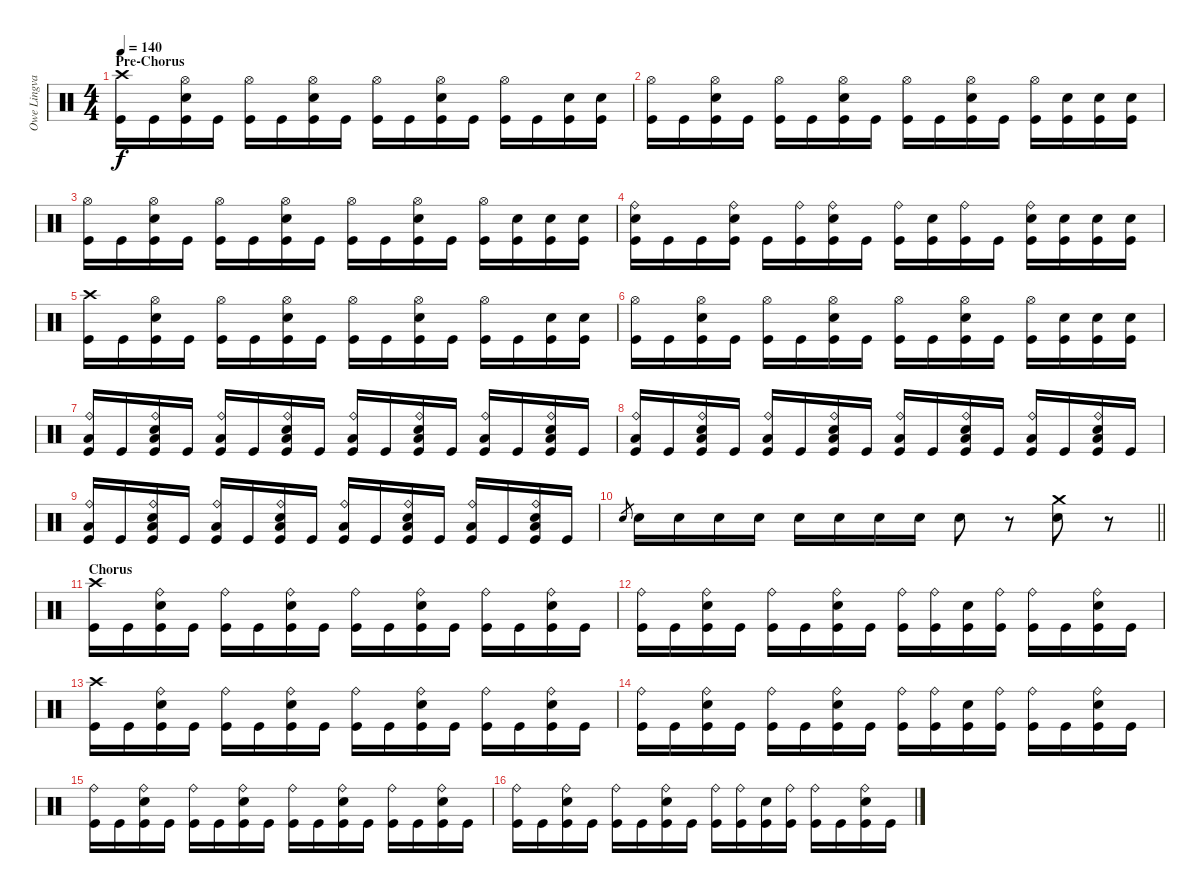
\track ("Owe Lingvall" "Owe Lingva") {instrument percussion}
\staff {score}
\articulation defaults
\ts (4 4)
\section ("" "Pre-Chorus")
\tempo 140
\clef neutral
\ks c
("Kick (hit)" "Crash high (hit)").16{dy f} "Kick (hit)".16 ("Kick (hit)" "Hi-Hat (open)" "Snare (hit) 2").16 "Kick (hit)".16 ("Kick (hit)" "Hi-Hat (open)").16 "Kick (hit)".16 ("Kick (hit)" "Hi-Hat (open)" "Snare (hit) 2").16 "Kick (hit)".16 ("Kick (hit)" "Hi-Hat (open)").16 "Kick (hit)".16 ("Kick (hit)" "Hi-Hat (open)" "Snare (hit) 2").16 "Kick (hit)".16 ("Kick (hit)" "Hi-Hat (open)").16 "Kick (hit)".16 ("Kick (hit)" "Snare (hit) 2").16 ("Kick (hit)" "Snare (hit) 2").16 |
("Kick (hit)" "Hi-Hat (open)").16 "Kick (hit)".16 ("Kick (hit)" "Hi-Hat (open)" "Snare (hit) 2").16 "Kick (hit)".16 ("Kick (hit)" "Hi-Hat (open)").16 "Kick (hit)".16 ("Kick (hit)" "Hi-Hat (open)" "Snare (hit) 2").16 "Kick (hit)".16 ("Kick (hit)" "Hi-Hat (open)").16 "Kick (hit)".16 ("Kick (hit)" "Hi-Hat (open)" "Snare (hit) 2").16 "Kick (hit)".16 ("Kick (hit)" "Hi-Hat (open)").16 ("Kick (hit)" "Snare (hit) 2").16 ("Kick (hit)" "Snare (hit) 2").16 ("Kick (hit)" "Snare (hit) 2").16 |
("Kick (hit)" "Hi-Hat (open)").16 "Kick (hit)".16 ("Kick (hit)" "Hi-Hat (open)" "Snare (hit) 2").16 "Kick (hit)".16 ("Kick (hit)" "Hi-Hat (open)").16 "Kick (hit)".16 ("Kick (hit)" "Hi-Hat (open)" "Snare (hit) 2").16 "Kick (hit)".16 ("Kick (hit)" "Hi-Hat (open)").16 "Kick (hit)".16 ("Kick (hit)" "Hi-Hat (open)" "Snare (hit) 2").16 "Kick (hit)".16 ("Kick (hit)" "Hi-Hat (open)").16 ("Kick (hit)" "Snare (hit) 2").16 ("Kick (hit)" "Snare (hit) 2").16 ("Kick (hit)" "Snare (hit) 2").16 |
("Kick (hit)" "Snare (hit) 2" "Ride (bell)").16 "Kick (hit)".16 "Kick (hit)".16 ("Kick (hit)" "Snare (hit) 2" "Ride (bell)").16 "Kick (hit)".16 ("Kick (hit)" "Ride (bell)").16 ("Kick (hit)" "Snare (hit) 2" "Ride (bell)").16 "Kick (hit)".16 ("Kick (hit)" "Ride (bell)").16 ("Kick (hit)" "Snare (hit) 2").16 ("Kick (hit)" "Ride (bell)").16 "Kick (hit)".16 ("Kick (hit)" "Snare (hit) 2" "Ride (bell)").16 ("Kick (hit)" "Snare (hit) 2").16 ("Kick (hit)" "Snare (hit) 2").16 ("Kick (hit)" "Snare (hit) 2").16 |
("Kick (hit)" "Crash high (hit)").16 "Kick (hit)".16 ("Kick (hit)" "Hi-Hat (open)" "Snare (hit) 2").16 "Kick (hit)".16 ("Kick (hit)" "Hi-Hat (open)").16 "Kick (hit)".16 ("Kick (hit)" "Hi-Hat (open)" "Snare (hit) 2").16 "Kick (hit)".16 ("Kick (hit)" "Hi-Hat (open)").16 "Kick (hit)".16 ("Kick (hit)" "Hi-Hat (open)" "Snare (hit) 2").16 "Kick (hit)".16 ("Kick (hit)" "Hi-Hat (open)").16 "Kick (hit)".16 ("Kick (hit)" "Snare (hit) 2").16 ("Kick (hit)" "Snare (hit) 2").16 |
("Kick (hit)" "Hi-Hat (open)").16 "Kick (hit)".16 ("Kick (hit)" "Hi-Hat (open)" "Snare (hit) 2").16 "Kick (hit)".16 ("Kick (hit)" "Hi-Hat (open)").16 "Kick (hit)".16 ("Kick (hit)" "Hi-Hat (open)" "Snare (hit) 2").16 "Kick (hit)".16 ("Kick (hit)" "Hi-Hat (open)").16 "Kick (hit)".16 ("Kick (hit)" "Hi-Hat (open)" "Snare (hit) 2").16 "Kick (hit)".16 ("Kick (hit)" "Hi-Hat (open)").16 ("Kick (hit)" "Snare (hit) 2").16 ("Kick (hit)" "Snare (hit) 2").16 ("Kick (hit)" "Snare (hit) 2").16 |
("Kick (hit)" "Low Tom (hit)" "Ride (bell)").16 "Kick (hit)".16 ("Kick (hit)" "Low Tom (hit)" "Snare (hit) 2" "Ride (bell)").16 "Kick (hit)".16 ("Kick (hit)" "Low Tom (hit)" "Ride (bell)").16 "Kick (hit)".16 ("Kick (hit)" "Low Tom (hit)" "Snare (hit) 2" "Ride (bell)").16 "Kick (hit)".16 ("Kick (hit)" "Low Tom (hit)" "Ride (bell)").16 "Kick (hit)".16 ("Kick (hit)" "Low Tom (hit)" "Snare (hit) 2" "Ride (bell)").16 "Kick (hit)".16 ("Kick (hit)" "Low Tom (hit)" "Ride (bell)").16 "Kick (hit)".16 ("Kick (hit)" "Low Tom (hit)" "Snare (hit) 2" "Ride (bell)").16 "Kick (hit)".16 |
("Kick (hit)" "Low Tom (hit)" "Ride (bell)").16 "Kick (hit)".16 ("Kick (hit)" "Low Tom (hit)" "Snare (hit) 2" "Ride (bell)").16 "Kick (hit)".16 ("Kick (hit)" "Low Tom (hit)" "Ride (bell)").16 "Kick (hit)".16 ("Kick (hit)" "Low Tom (hit)" "Snare (hit) 2" "Ride (bell)").16 "Kick (hit)".16 ("Kick (hit)" "Low Tom (hit)" "Ride (bell)").16 "Kick (hit)".16 ("Kick (hit)" "Low Tom (hit)" "Snare (hit) 2" "Ride (bell)").16 "Kick (hit)".16 ("Kick (hit)" "Low Tom (hit)" "Ride (bell)").16 "Kick (hit)".16 ("Kick (hit)" "Low Tom (hit)" "Snare (hit) 2" "Ride (bell)").16 "Kick (hit)".16 |
("Kick (hit)" "Low Tom (hit)" "Ride (bell)").16 "Kick (hit)".16 ("Kick (hit)" "Low Tom (hit)" "Snare (hit) 2" "Ride (bell)").16 "Kick (hit)".16 ("Kick (hit)" "Low Tom (hit)" "Ride (bell)").16 "Kick (hit)".16 ("Kick (hit)" "Low Tom (hit)" "Snare (hit) 2" "Ride (bell)").16 "Kick (hit)".16 ("Kick (hit)" "Low Tom (hit)" "Ride (bell)").16 "Kick (hit)".16 ("Kick (hit)" "Low Tom (hit)" "Snare (hit) 2" "Ride (bell)").16 "Kick (hit)".16 ("Kick (hit)" "Low Tom (hit)" "Ride (bell)").16 "Kick (hit)".16 ("Kick (hit)" "Low Tom (hit)" "Snare (hit) 2" "Ride (bell)").16 "Kick (hit)".16 |
\barLineRight lightlight "Snare (hit) 2".8{gr} "Snare (hit) 2".16 "Snare (hit) 2".16 "Snare (hit) 2".16 "Snare (hit) 2".16 "Snare (hit) 2".16 "Snare (hit) 2".16 "Snare (hit) 2".16 "Snare (hit) 2".16 "Snare (hit) 2".8
r.8 ("Snare (hit) 2" "Crash medium (hit)").8 r.8 |
\section ("" "Chorus")
("Kick (hit)" "Crash high (hit)").16 "Kick (hit)".16 ("Kick (hit)" "Ride (bell)" "Snare (hit) 2").16 "Kick (hit)".16 ("Kick (hit)" "Ride (bell)").16 "Kick (hit)".16 ("Kick (hit)" "Ride (bell)" "Snare (hit) 2").16 "Kick (hit)".16 ("Kick (hit)" "Ride (bell)").16 "Kick (hit)".16 ("Kick (hit)" "Ride (bell)" "Snare (hit) 2").16 "Kick (hit)".16 ("Kick (hit)" "Ride (bell)").16 "Kick (hit)".16 ("Kick (hit)" "Ride (bell)" "Snare (hit) 2").16 "Kick (hit)".16 |
("Kick (hit)" "Ride (bell)").16 "Kick (hit)".16 ("Kick (hit)" "Ride (bell)" "Snare (hit) 2").16 "Kick (hit)".16 ("Kick (hit)" "Ride (bell)").16 "Kick (hit)".16 ("Kick (hit)" "Ride (bell)" "Snare (hit) 2").16 "Kick (hit)".16 ("Kick (hit)" "Ride (bell)").16 ("Kick (hit)" "Ride (bell)").16 ("Kick (hit)" "Snare (hit) 2").16 ("Kick (hit)" "Ride (bell)").16 ("Kick (hit)" "Ride (bell)").16 "Kick (hit)".16 ("Kick (hit)" "Ride (bell)" "Snare (hit) 2").16 "Kick (hit)".16 |
("Kick (hit)" "Crash high (hit)").16 "Kick (hit)".16 ("Kick (hit)" "Ride (bell)" "Snare (hit) 2").16 "Kick (hit)".16 ("Kick (hit)" "Ride (bell)").16 "Kick (hit)".16 ("Kick (hit)" "Ride (bell)" "Snare (hit) 2").16 "Kick (hit)".16 ("Kick (hit)" "Ride (bell)").16 "Kick (hit)".16 ("Kick (hit)" "Ride (bell)" "Snare (hit) 2").16 "Kick (hit)".16 ("Kick (hit)" "Ride (bell)").16 "Kick (hit)".16 ("Kick (hit)" "Ride (bell)" "Snare (hit) 2").16 "Kick (hit)".16 |
("Kick (hit)" "Ride (bell)").16 "Kick (hit)".16 ("Kick (hit)" "Ride (bell)" "Snare (hit) 2").16 "Kick (hit)".16 ("Kick (hit)" "Ride (bell)").16 "Kick (hit)".16 ("Kick (hit)" "Ride (bell)" "Snare (hit) 2").16 "Kick (hit)".16 ("Kick (hit)" "Ride (bell)").16 ("Kick (hit)" "Ride (bell)").16 ("Kick (hit)" "Snare (hit) 2").16 ("Kick (hit)" "Ride (bell)").16 ("Kick (hit)" "Ride (bell)").16 "Kick (hit)".16 ("Kick (hit)" "Ride (bell)" "Snare (hit) 2").16 "Kick (hit)".16 |
("Kick (hit)" "Ride (bell)").16 "Kick (hit)".16 ("Kick (hit)" "Ride (bell)" "Snare (hit) 2").16 "Kick (hit)".16 ("Kick (hit)" "Ride (bell)").16 "Kick (hit)".16 ("Kick (hit)" "Ride (bell)" "Snare (hit) 2").16 "Kick (hit)".16 ("Kick (hit)" "Ride (bell)").16 "Kick (hit)".16 ("Kick (hit)" "Ride (bell)" "Snare (hit) 2").16 "Kick (hit)".16 ("Kick (hit)" "Ride (bell)").16 "Kick (hit)".16 ("Kick (hit)" "Ride (bell)" "Snare (hit) 2").16 "Kick (hit)".16 |
("Kick (hit)" "Ride (bell)").16 "Kick (hit)".16 ("Kick (hit)" "Ride (bell)" "Snare (hit) 2").16 "Kick (hit)".16 ("Kick (hit)" "Ride (bell)").16 "Kick (hit)".16 ("Kick (hit)" "Ride (bell)" "Snare (hit) 2").16 "Kick (hit)".16 ("Kick (hit)" "Ride (bell)").16 ("Kick (hit)" "Ride (bell)").16 ("Kick (hit)" "Snare (hit) 2").16 ("Kick (hit)" "Ride (bell)").16 ("Kick (hit)" "Ride (bell)").16 "Kick (hit)".16 ("Kick (hit)" "Ride (bell)" "Snare (hit) 2").16 "Kick (hit)".16
